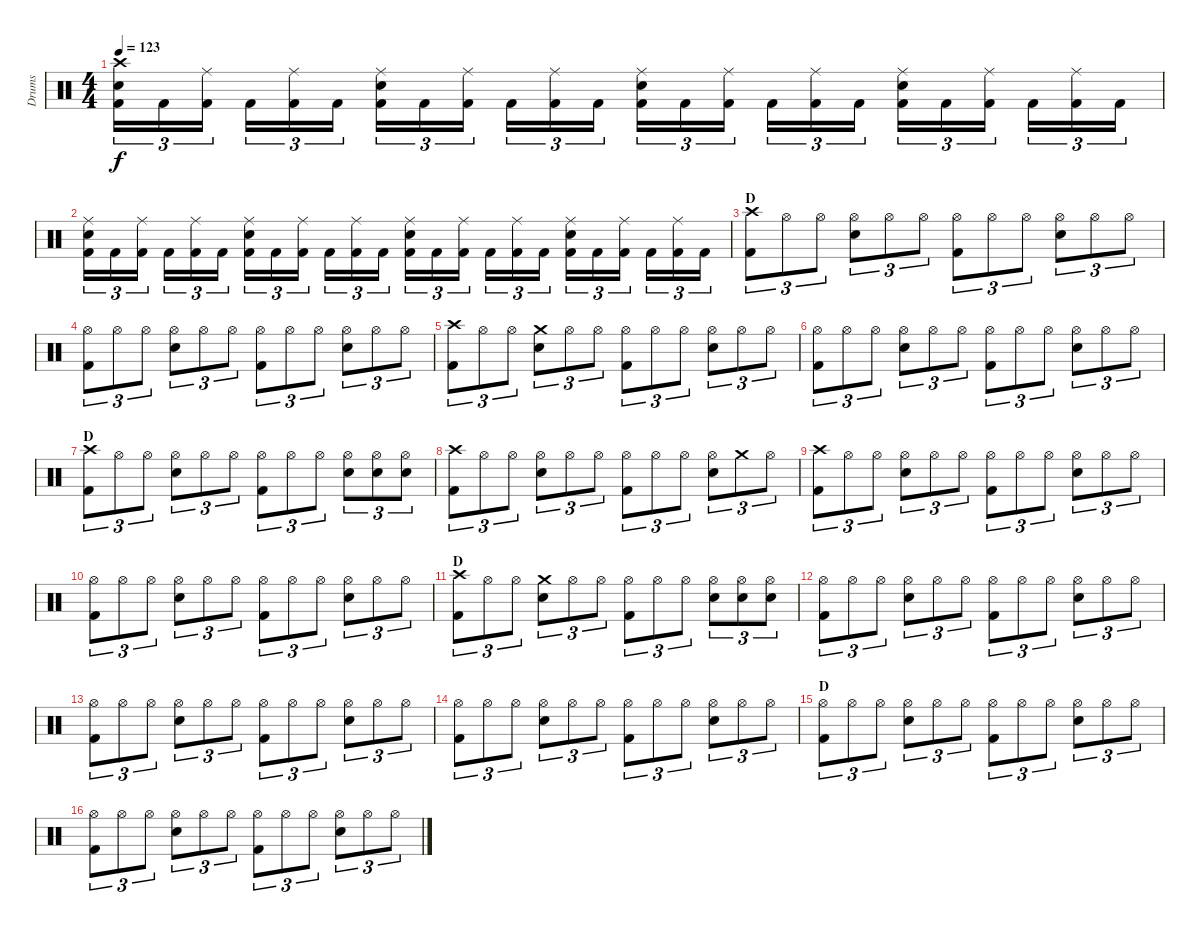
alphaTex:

\track ("Drums" "Drums") {instrument percussion}
\staff {score}
\articulation defaults
\ts (4 4)
\tempo 123
\clef neutral
\ks c
("Crash high (hit)" "Snare (hit) 2" "Kick (hit) 2").16{tu (3 2) dy f} "Kick (hit) 2".16{tu (3 2)} ("Ride (middle)" "Kick (hit) 2").16{tu (3 2)} "Kick (hit) 2".16{tu (3 2)} ("Ride (middle)" "Kick (hit) 2").16{tu (3 2)} "Kick (hit) 2".16{tu (3 2)} ("Ride (middle)" "Snare (hit) 2" "Kick (hit) 2").16{tu (3 2)} "Kick (hit) 2".16{tu (3 2)} ("Ride (middle)" "Kick (hit) 2").16{tu (3 2)} "Kick (hit) 2".16{tu (3 2)} ("Ride (middle)" "Kick (hit) 2").16{tu (3 2)} "Kick (hit) 2".16{tu (3 2)} ("Ride (middle)" "Snare (hit) 2" "Kick (hit) 2").16{tu (3 2)} "Kick (hit) 2".16{tu (3 2)} ("Ride (middle)" "Kick (hit) 2").16{tu (3 2)} "Kick (hit) 2".16{tu (3 2)} ("Ride (middle)" "Kick (hit) 2").16{tu (3 2)} "Kick (hit) 2".16{tu (3 2)} ("Ride (middle)" "Snare (hit) 2" "Kick (hit) 2").16{tu (3 2)} "Kick (hit) 2".16{tu (3 2)} ("Ride (middle)" "Kick (hit) 2").16{tu (3 2)} "Kick (hit) 2".16{tu (3 2)} ("Ride (middle)" "Kick (hit) 2").16{tu (3 2)} "Kick (hit) 2".16{tu (3 2)} |
("Ride (middle)" "Snare (hit) 2" "Kick (hit) 2").16{tu (3 2)} "Kick (hit) 2".16{tu (3 2)} ("Ride (middle)" "Kick (hit) 2").16{tu (3 2)} "Kick (hit) 2".16{tu (3 2)} ("Ride (middle)" "Kick (hit) 2").16{tu (3 2)} "Kick (hit) 2".16{tu (3 2)} ("Ride (middle)" "Snare (hit) 2" "Kick (hit) 2").16{tu (3 2)} "Kick (hit) 2".16{tu (3 2)} ("Ride (middle)" "Kick (hit) 2").16{tu (3 2)} "Kick (hit) 2".16{tu (3 2)} ("Ride (middle)" "Kick (hit) 2").16{tu (3 2)} "Kick (hit) 2".16{tu (3 2)} ("Ride (middle)" "Snare (hit) 2" "Kick (hit) 2").16{tu (3 2)} "Kick (hit) 2".16{tu (3 2)} ("Ride (middle)" "Kick (hit) 2").16{tu (3 2)} "Kick (hit) 2".16{tu (3 2)} ("Ride (middle)" "Kick (hit) 2").16{tu (3 2)} "Kick (hit) 2".16{tu (3 2)} ("Ride (middle)" "Snare (hit) 2" "Kick (hit) 2").16{tu (3 2)} "Kick (hit) 2".16{tu (3 2)} ("Ride (middle)" "Kick (hit) 2").16{tu (3 2)} "Kick (hit) 2".16{tu (3 2)} ("Ride (middle)" "Kick (hit) 2").16{tu (3 2)} "Kick (hit) 2".16{tu (3 2)} |
\section ("" "D")
("Crash high (hit)" "Kick (hit) 2").8{tu (3 2)} "Hi-Hat (open)".8{tu (3 2)} "Hi-Hat (open)".8{tu (3 2)} ("Hi-Hat (open)" "Snare (hit) 2").8{tu (3 2)} "Hi-Hat (open)".8{tu (3 2)} "Hi-Hat (open)".8{tu (3 2)} ("Hi-Hat (open)" "Kick (hit) 2").8{tu (3 2)} "Hi-Hat (open)".8{tu (3 2)} "Hi-Hat (open)".8{tu (3 2)} ("Hi-Hat (open)" "Snare (hit) 2").8{tu (3 2)} "Hi-Hat (open)".8{tu (3 2)} "Hi-Hat (open)".8{tu (3 2)} |
("Hi-Hat (open)" "Kick (hit) 2").8{tu (3 2)} "Hi-Hat (open)".8{tu (3 2)} "Hi-Hat (open)".8{tu (3 2)} ("Hi-Hat (open)" "Snare (hit) 2").8{tu (3 2)} "Hi-Hat (open)".8{tu (3 2)} "Hi-Hat (open)".8{tu (3 2)} ("Hi-Hat (open)" "Kick (hit) 2").8{tu (3 2)} "Hi-Hat (open)".8{tu (3 2)} "Hi-Hat (open)".8{tu (3 2)} ("Hi-Hat (open)" "Snare (hit) 2").8{tu (3 2)} "Hi-Hat (open)".8{tu (3 2)} "Hi-Hat (open)".8{tu (3 2)} |
("Crash high (hit)" "Kick (hit) 2").8{tu (3 2)} "Hi-Hat (open)".8{tu (3 2)} "Hi-Hat (open)".8{tu (3 2)} ("Crash medium (hit)" "Snare (hit) 2").8{tu (3 2)} "Hi-Hat (open)".8{tu (3 2)} "Hi-Hat (open)".8{tu (3 2)} ("Hi-Hat (open)" "Kick (hit) 2").8{tu (3 2)} "Hi-Hat (open)".8{tu (3 2)} "Hi-Hat (open)".8{tu (3 2)} ("Hi-Hat (open)" "Snare (hit) 2").8{tu (3 2)} "Hi-Hat (open)".8{tu (3 2)} "Hi-Hat (open)".8{tu (3 2)} |
("Hi-Hat (open)" "Kick (hit) 2").8{tu (3 2)} "Hi-Hat (open)".8{tu (3 2)} "Hi-Hat (open)".8{tu (3 2)} ("Hi-Hat (open)" "Snare (hit) 2").8{tu (3 2)} "Hi-Hat (open)".8{tu (3 2)} "Hi-Hat (open)".8{tu (3 2)} ("Hi-Hat (open)" "Kick (hit) 2").8{tu (3 2)} "Hi-Hat (open)".8{tu (3 2)} "Hi-Hat (open)".8{tu (3 2)} ("Hi-Hat (open)" "Snare (hit) 2").8{tu (3 2)} "Hi-Hat (open)".8{tu (3 2)} "Hi-Hat (open)".8{tu (3 2)} |
\section ("" "D")
("Crash high (hit)" "Kick (hit) 2").8{tu (3 2)} "Hi-Hat (open)".8{tu (3 2)} "Hi-Hat (open)".8{tu (3 2)} ("Hi-Hat (open)" "Snare (hit) 2").8{tu (3 2)} "Hi-Hat (open)".8{tu (3 2)} "Hi-Hat (open)".8{tu (3 2)} ("Hi-Hat (open)" "Kick (hit) 2").8{tu (3 2)} "Hi-Hat (open)".8{tu (3 2)} "Hi-Hat (open)".8{tu (3 2)} ("Hi-Hat (open)" "Snare (hit) 2").8{tu (3 2)} ("Hi-Hat (open)" "Snare (hit) 2").8{tu (3 2)} ("Hi-Hat (open)" "Snare (hit) 2").8{tu (3 2)} |
("Crash high (hit)" "Kick (hit) 2").8{tu (3 2)} "Hi-Hat (open)".8{tu (3 2)} "Hi-Hat (open)".8{tu (3 2)} ("Hi-Hat (open)" "Snare (hit) 2").8{tu (3 2)} "Hi-Hat (open)".8{tu (3 2)} "Hi-Hat (open)".8{tu (3 2)} ("Hi-Hat (open)" "Kick (hit) 2").8{tu (3 2)} "Hi-Hat (open)".8{tu (3 2)} "Hi-Hat (open)".8{tu (3 2)} ("Hi-Hat (open)" "Snare (hit) 2").8{tu (3 2)} "Crash medium (hit)".8{tu (3 2)} "Hi-Hat (open)".8{tu (3 2)} |
("Crash high (hit)" "Kick (hit) 2").8{tu (3 2)} "Hi-Hat (open)".8{tu (3 2)} "Hi-Hat (open)".8{tu (3 2)} ("Hi-Hat (open)" "Snare (hit) 2").8{tu (3 2)} "Hi-Hat (open)".8{tu (3 2)} "Hi-Hat (open)".8{tu (3 2)} ("Hi-Hat (open)" "Kick (hit) 2").8{tu (3 2)} "Hi-Hat (open)".8{tu (3 2)} "Hi-Hat (open)".8{tu (3 2)} ("Hi-Hat (open)" "Snare (hit) 2").8{tu (3 2)} "Hi-Hat (open)".8{tu (3 2)} "Hi-Hat (open)".8{tu (3 2)} |
("Hi-Hat (open)" "Kick (hit) 2").8{tu (3 2)} "Hi-Hat (open)".8{tu (3 2)} "Hi-Hat (open)".8{tu (3 2)} ("Hi-Hat (open)" "Snare (hit) 2").8{tu (3 2)} "Hi-Hat (open)".8{tu (3 2)} "Hi-Hat (open)".8{tu (3 2)} ("Hi-Hat (open)" "Kick (hit) 2").8{tu (3 2)} "Hi-Hat (open)".8{tu (3 2)} "Hi-Hat (open)".8{tu (3 2)} ("Hi-Hat (open)" "Snare (hit) 2").8{tu (3 2)} "Hi-Hat (open)".8{tu (3 2)} "Hi-Hat (open)".8{tu (3 2)} |
\section ("" "D")
("Crash high (hit)" "Kick (hit) 2").8{tu (3 2)} "Hi-Hat (open)".8{tu (3 2)} "Hi-Hat (open)".8{tu (3 2)} ("Crash medium (hit)" "Snare (hit) 2").8{tu (3 2)} "Hi-Hat (open)".8{tu (3 2)} "Hi-Hat (open)".8{tu (3 2)} ("Hi-Hat (open)" "Kick (hit) 2").8{tu (3 2)} "Hi-Hat (open)".8{tu (3 2)} "Hi-Hat (open)".8{tu (3 2)} ("Hi-Hat (open)" "Snare (hit) 2").8{tu (3 2)} ("Hi-Hat (open)" "Snare (hit) 2").8{tu (3 2)} ("Hi-Hat (open)" "Snare (hit) 2").8{tu (3 2)} |
("Hi-Hat (open)" "Kick (hit) 2").8{tu (3 2)} "Hi-Hat (open)".8{tu (3 2)} "Hi-Hat (open)".8{tu (3 2)} ("Hi-Hat (open)" "Snare (hit) 2").8{tu (3 2)} "Hi-Hat (open)".8{tu (3 2)} "Hi-Hat (open)".8{tu (3 2)} ("Hi-Hat (open)" "Kick (hit) 2").8{tu (3 2)} "Hi-Hat (open)".8{tu (3 2)} "Hi-Hat (open)".8{tu (3 2)} ("Hi-Hat (open)" "Snare (hit) 2").8{tu (3 2)} "Hi-Hat (open)".8{tu (3 2)} "Hi-Hat (open)".8{tu (3 2)} |
("Hi-Hat (open)" "Kick (hit) 2").8{tu (3 2)} "Hi-Hat (open)".8{tu (3 2)} "Hi-Hat (open)".8{tu (3 2)} ("Hi-Hat (open)" "Snare (hit) 2").8{tu (3 2)} "Hi-Hat (open)".8{tu (3 2)} "Hi-Hat (open)".8{tu (3 2)} ("Hi-Hat (open)" "Kick (hit) 2").8{tu (3 2)} "Hi-Hat (open)".8{tu (3 2)} "Hi-Hat (open)".8{tu (3 2)} ("Hi-Hat (open)" "Snare (hit) 2").8{tu (3 2)} "Hi-Hat (open)".8{tu (3 2)} "Hi-Hat (open)".8{tu (3 2)} |
("Hi-Hat (open)" "Kick (hit) 2").8{tu (3 2)} "Hi-Hat (open)".8{tu (3 2)} "Hi-Hat (open)".8{tu (3 2)} ("Hi-Hat (open)" "Snare (hit) 2").8{tu (3 2)} "Hi-Hat (open)".8{tu (3 2)} "Hi-Hat (open)".8{tu (3 2)} ("Hi-Hat (open)" "Kick (hit) 2").8{tu (3 2)} "Hi-Hat (open)".8{tu (3 2)} "Hi-Hat (open)".8{tu (3 2)} ("Hi-Hat (open)" "Snare (hit) 2").8{tu (3 2)} "Hi-Hat (open)".8{tu (3 2)} "Hi-Hat (open)".8{tu (3 2)} |
\section ("" "D")
("Hi-Hat (open)" "Kick (hit) 2").8{tu (3 2)} "Hi-Hat (open)".8{tu (3 2)} "Hi-Hat (open)".8{tu (3 2)} ("Hi-Hat (open)" "Snare (hit) 2").8{tu (3 2)} "Hi-Hat (open)".8{tu (3 2)} "Hi-Hat (open)".8{tu (3 2)} ("Hi-Hat (open)" "Kick (hit) 2").8{tu (3 2)} "Hi-Hat (open)".8{tu (3 2)} "Hi-Hat (open)".8{tu (3 2)} ("Hi-Hat (open)" "Snare (hit) 2").8{tu (3 2)} "Hi-Hat (open)".8{tu (3 2)} "Hi-Hat (open)".8{tu (3 2)} |
("Hi-Hat (open)" "Kick (hit) 2").8{tu (3 2)} "Hi-Hat (open)".8{tu (3 2)} "Hi-Hat (open)".8{tu (3 2)} ("Hi-Hat (open)" "Snare (hit) 2").8{tu (3 2)} "Hi-Hat (open)".8{tu (3 2)} "Hi-Hat (open)".8{tu (3 2)} ("Hi-Hat (open)" "Kick (hit) 2").8{tu (3 2)} "Hi-Hat (open)".8{tu (3 2)} "Hi-Hat (open)".8{tu (3 2)} ("Hi-Hat (open)" "Snare (hit) 2").8{tu (3 2)} "Hi-Hat (open)".8{tu (3 2)} "Hi-Hat (open)".8{tu (3 2)}
